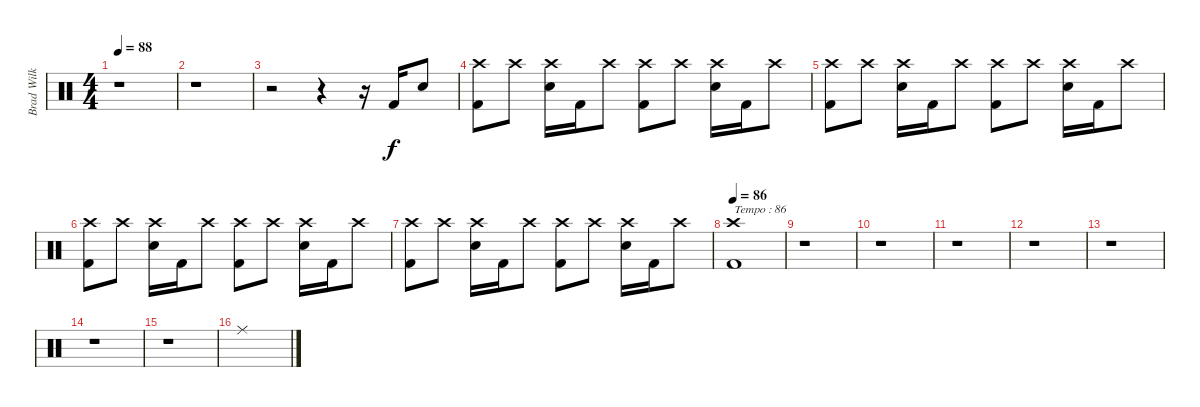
\track ("Brad Wilk / Drums" "Brad Wilk ") {instrument percussion}
\staff {score}
\articulation defaults
\ts (4 4)
\tempo 88
\clef neutral
\ks c
r.1{dy f} |
r.1 |
r.2 r.4 r.16 "Kick (hit) 2".16 "Electric Snare (hit)".8 |
("Crash high (hit)" "Kick (hit) 2").8 "Crash high (hit)".8 ("Crash high (hit)" "Electric Snare (hit)").16 "Kick (hit) 2".16 "Crash high (hit)".8 ("Crash high (hit)" "Kick (hit) 2").8 "Crash high (hit)".8 ("Crash high (hit)" "Electric Snare (hit)").16 "Kick (hit) 2".16 "Crash high (hit)".8 |
("Crash high (hit)" "Kick (hit) 2").8 "Crash high (hit)".8 ("Crash high (hit)" "Electric Snare (hit)").16 "Kick (hit) 2".16 "Crash high (hit)".8 ("Crash high (hit)" "Kick (hit) 2").8 "Crash high (hit)".8 ("Crash high (hit)" "Electric Snare (hit)").16 "Kick (hit) 2".16 "Crash high (hit)".8 |
("Crash high (hit)" "Kick (hit) 2").8 "Crash high (hit)".8 ("Crash high (hit)" "Electric Snare (hit)").16 "Kick (hit) 2".16 "Crash high (hit)".8 ("Crash high (hit)" "Kick (hit) 2").8 "Crash high (hit)".8 ("Crash high (hit)" "Electric Snare (hit)").16 "Kick (hit) 2".16 "Crash high (hit)".8 |
("Crash high (hit)" "Kick (hit) 2").8 "Crash high (hit)".8 ("Crash high (hit)" "Electric Snare (hit)").16 "Kick (hit) 2".16 "Crash high (hit)".8 ("Crash high (hit)" "Kick (hit) 2").8 "Crash high (hit)".8 ("Crash high (hit)" "Electric Snare (hit)").16 "Kick (hit) 2".16 "Crash high (hit)".8 |
\tempo 86
("Crash high (hit)" "Kick (hit) 2").1{txt "Tempo : 86"} |
r.1 |
r.1 |
r.1 |
r.1 |
r.1 |
r.1 |
r.1 |
"Ride (middle)".1
